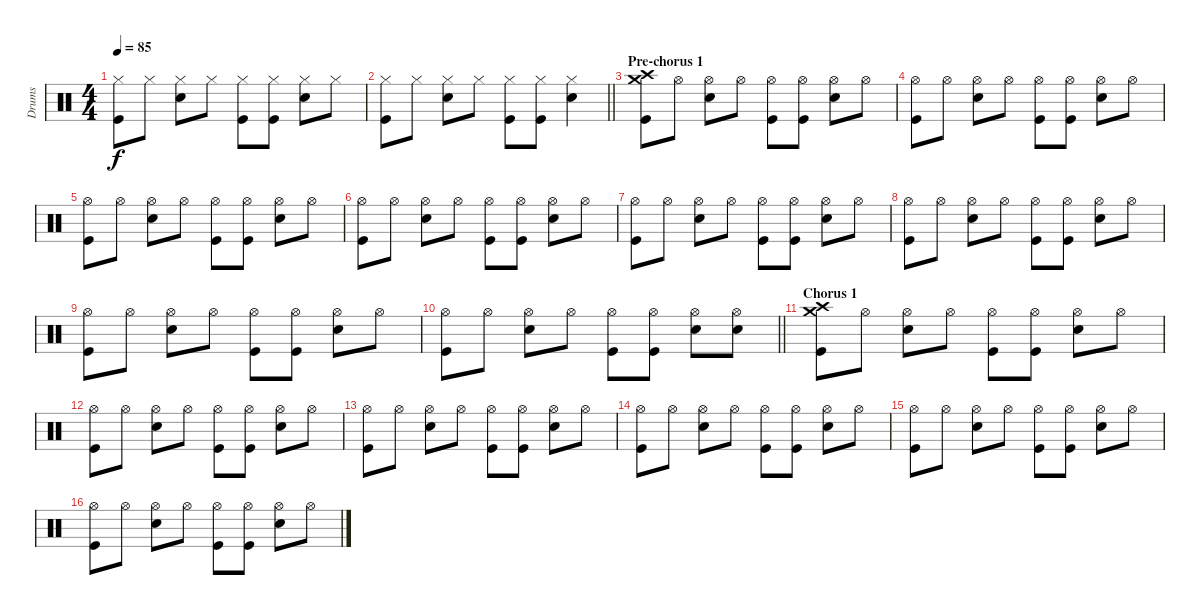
\track ("Drums" "Drums") {instrument percussion}
\staff {score}
\articulation defaults
\ts (4 4)
\tempo 85
\clef neutral
\ks c
("Hi-Hat (closed)" "Kick (hit)").8{dy f} "Hi-Hat (closed)".8 ("Hi-Hat (closed)" "Snare (hit) 2").8 "Hi-Hat (closed)".8 ("Hi-Hat (closed)" "Kick (hit)").8 ("Hi-Hat (closed)" "Kick (hit)").8 ("Hi-Hat (closed)" "Snare (hit) 2").8 "Hi-Hat (closed)".8 |
\barLineRight lightlight
("Hi-Hat (closed)" "Kick (hit)").8 "Hi-Hat (closed)".8 ("Hi-Hat (closed)" "Snare (hit) 2").8 "Hi-Hat (closed)".8 ("Hi-Hat (closed)" "Kick (hit)").8 ("Hi-Hat (closed)" "Kick (hit)").8 ("Hi-Hat (closed)" "Snare (hit) 2").4 |
\section ("" "Pre-chorus 1")
("Crash high (hit)" "Crash medium (hit)" "Kick (hit)").8 "Hi-Hat (open)".8 ("Hi-Hat (open)" "Snare (hit) 2").8 "Hi-Hat (open)".8 ("Hi-Hat (open)" "Kick (hit)").8 ("Hi-Hat (open)" "Kick (hit)").8 ("Hi-Hat (open)" "Snare (hit) 2").8 "Hi-Hat (open)".8 |
("Hi-Hat (open)" "Kick (hit)").8 "Hi-Hat (open)".8 ("Hi-Hat (open)" "Snare (hit) 2").8 "Hi-Hat (open)".8 ("Hi-Hat (open)" "Kick (hit)").8 ("Hi-Hat (open)" "Kick (hit)").8 ("Hi-Hat (open)" "Snare (hit) 2").8 "Hi-Hat (open)".8 |
("Hi-Hat (open)" "Kick (hit)").8 "Hi-Hat (open)".8 ("Hi-Hat (open)" "Snare (hit) 2").8 "Hi-Hat (open)".8 ("Hi-Hat (open)" "Kick (hit)").8 ("Hi-Hat (open)" "Kick (hit)").8 ("Hi-Hat (open)" "Snare (hit) 2").8 "Hi-Hat (open)".8 |
("Hi-Hat (open)" "Kick (hit)").8 "Hi-Hat (open)".8 ("Hi-Hat (open)" "Snare (hit) 2").8 "Hi-Hat (open)".8 ("Hi-Hat (open)" "Kick (hit)").8 ("Hi-Hat (open)" "Kick (hit)").8 ("Hi-Hat (open)" "Snare (hit) 2").8 "Hi-Hat (open)".8 |
("Hi-Hat (open)" "Kick (hit)").8 "Hi-Hat (open)".8 ("Hi-Hat (open)" "Snare (hit) 2").8 "Hi-Hat (open)".8 ("Hi-Hat (open)" "Kick (hit)").8 ("Hi-Hat (open)" "Kick (hit)").8 ("Hi-Hat (open)" "Snare (hit) 2").8 "Hi-Hat (open)".8 |
("Hi-Hat (open)" "Kick (hit)").8 "Hi-Hat (open)".8 ("Hi-Hat (open)" "Snare (hit) 2").8 "Hi-Hat (open)".8 ("Hi-Hat (open)" "Kick (hit)").8 ("Hi-Hat (open)" "Kick (hit)").8 ("Hi-Hat (open)" "Snare (hit) 2").8 "Hi-Hat (open)".8 |
("Hi-Hat (open)" "Kick (hit)").8 "Hi-Hat (open)".8 ("Hi-Hat (open)" "Snare (hit) 2").8 "Hi-Hat (open)".8 ("Hi-Hat (open)" "Kick (hit)").8 ("Hi-Hat (open)" "Kick (hit)").8 ("Hi-Hat (open)" "Snare (hit) 2").8 "Hi-Hat (open)".8 |
\barLineRight lightlight
("Hi-Hat (open)" "Kick (hit)").8 "Hi-Hat (open)".8 ("Hi-Hat (open)" "Snare (hit) 2").8 "Hi-Hat (open)".8 ("Hi-Hat (open)" "Kick (hit)").8 ("Hi-Hat (open)" "Kick (hit)").8 ("Hi-Hat (open)" "Snare (hit) 2").8 ("Hi-Hat (open)" "Snare (hit) 2").8 |
\section ("" "Chorus 1")
("Crash high (hit)" "Crash medium (hit)" "Kick (hit)").8 "Hi-Hat (open)".8 ("Hi-Hat (open)" "Snare (hit) 2").8 "Hi-Hat (open)".8 ("Hi-Hat (open)" "Kick (hit)").8 ("Hi-Hat (open)" "Kick (hit)").8 ("Hi-Hat (open)" "Snare (hit) 2").8 "Hi-Hat (open)".8 |
("Hi-Hat (open)" "Kick (hit)").8 "Hi-Hat (open)".8 ("Hi-Hat (open)" "Snare (hit) 2").8 "Hi-Hat (open)".8 ("Hi-Hat (open)" "Kick (hit)").8 ("Hi-Hat (open)" "Kick (hit)").8 ("Hi-Hat (open)" "Snare (hit) 2").8 "Hi-Hat (open)".8 |
("Hi-Hat (open)" "Kick (hit)").8 "Hi-Hat (open)".8 ("Hi-Hat (open)" "Snare (hit) 2").8 "Hi-Hat (open)".8 ("Hi-Hat (open)" "Kick (hit)").8 ("Hi-Hat (open)" "Kick (hit)").8 ("Hi-Hat (open)" "Snare (hit) 2").8 "Hi-Hat (open)".8 |
("Hi-Hat (open)" "Kick (hit)").8 "Hi-Hat (open)".8 ("Hi-Hat (open)" "Snare (hit) 2").8 "Hi-Hat (open)".8 ("Hi-Hat (open)" "Kick (hit)").8 ("Hi-Hat (open)" "Kick (hit)").8 ("Hi-Hat (open)" "Snare (hit) 2").8 "Hi-Hat (open)".8 |
("Hi-Hat (open)" "Kick (hit)").8 "Hi-Hat (open)".8 ("Hi-Hat (open)" "Snare (hit) 2").8 "Hi-Hat (open)".8 ("Hi-Hat (open)" "Kick (hit)").8 ("Hi-Hat (open)" "Kick (hit)").8 ("Hi-Hat (open)" "Snare (hit) 2").8 "Hi-Hat (open)".8 |
("Hi-Hat (open)" "Kick (hit)").8 "Hi-Hat (open)".8 ("Hi-Hat (open)" "Snare (hit) 2").8 "Hi-Hat (open)".8 ("Hi-Hat (open)" "Kick (hit)").8 ("Hi-Hat (open)" "Kick (hit)").8 ("Hi-Hat (open)" "Snare (hit) 2").8 "Hi-Hat (open)".8
